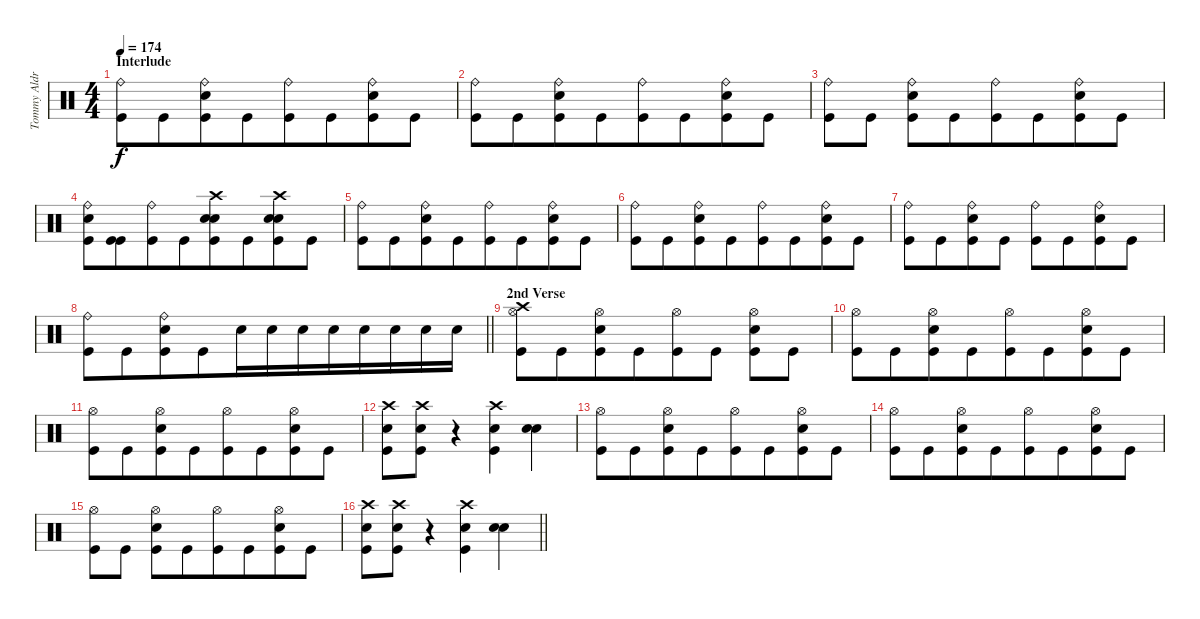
\track ("Tommy Aldrige" "Tommy Aldr") {instrument percussion}
\staff {score}
\articulation defaults
\ts (4 4)
\section ("" "Interlude")
\tempo 174
\clef neutral
\ks c
("Ride (bell)" "Kick (hit)").8{dy f beam merge} "Kick (hit)".8{beam merge} ("Ride (bell)" "Kick (hit)" "Snare (hit) 2").8{beam merge} "Kick (hit)".8{beam merge} ("Ride (bell)" "Kick (hit)").8{beam merge} "Kick (hit)".8{beam merge} ("Ride (bell)" "Kick (hit)" "Snare (hit) 2").8{beam merge} "Kick (hit)".8 |
("Ride (bell)" "Kick (hit)").8{beam merge} "Kick (hit)".8{beam merge} ("Ride (bell)" "Kick (hit)" "Snare (hit) 2").8{beam merge} "Kick (hit)".8{beam merge} ("Ride (bell)" "Kick (hit)").8{beam merge} "Kick (hit)".8{beam merge} ("Ride (bell)" "Kick (hit)" "Snare (hit) 2").8{beam merge} "Kick (hit)".8 |
("Ride (bell)" "Kick (hit)").8{beam merge} "Kick (hit)".8 ("Ride (bell)" "Kick (hit)" "Snare (hit) 2").8{beam merge} "Kick (hit)".8{beam merge} ("Ride (bell)" "Kick (hit)").8{beam merge} "Kick (hit)".8{beam merge} ("Ride (bell)" "Kick (hit)" "Snare (hit) 2").8{beam merge} "Kick (hit)".8 |
("Ride (bell)" "Kick (hit)" "Snare (hit) 2").8{beam merge} ("Kick (hit)" "Kick (hit)").8{beam merge} ("Ride (bell)" "Kick (hit)").8{beam merge} "Kick (hit)".8{beam merge} ("Crash high (hit)" "Snare (hit) 2" "Snare (hit) 2" "Kick (hit)").8{beam merge} "Kick (hit)".8{beam merge} ("Crash high (hit)" "Snare (hit) 2" "Snare (hit) 2" "Kick (hit)").8 "Kick (hit)".8 |
("Ride (bell)" "Kick (hit)").8{beam merge} "Kick (hit)".8{beam merge} ("Ride (bell)" "Kick (hit)" "Snare (hit) 2").8{beam merge} "Kick (hit)".8{beam merge} ("Ride (bell)" "Kick (hit)").8{beam merge} "Kick (hit)".8{beam merge} ("Ride (bell)" "Kick (hit)" "Snare (hit) 2").8{beam merge} "Kick (hit)".8 |
("Ride (bell)" "Kick (hit)").8{beam merge} "Kick (hit)".8{beam merge} ("Ride (bell)" "Kick (hit)" "Snare (hit) 2").8 "Kick (hit)".8{beam merge} ("Ride (bell)" "Kick (hit)").8{beam merge} "Kick (hit)".8{beam merge} ("Ride (bell)" "Kick (hit)" "Snare (hit) 2").8{beam merge} "Kick (hit)".8 |
("Ride (bell)" "Kick (hit)").8{beam merge} "Kick (hit)".8{beam merge} ("Ride (bell)" "Kick (hit)" "Snare (hit) 2").8{beam merge} "Kick (hit)".8 ("Ride (bell)" "Kick (hit)").8{beam merge} "Kick (hit)".8{beam merge} ("Ride (bell)" "Kick (hit)" "Snare (hit) 2").8{beam merge} "Kick (hit)".8 |
\barLineRight lightlight
("Ride (bell)" "Kick (hit)").8{beam merge} "Kick (hit)".8{beam merge} ("Ride (bell)" "Kick (hit)" "Snare (hit) 2").8{beam merge} "Kick (hit)".8{beam merge} "Snare (hit) 2".16{beam merge} "Snare (hit) 2".16{beam merge} "Snare (hit) 2".16{beam merge} "Snare (hit) 2".16{beam merge} "Snare (hit) 2".16{beam merge} "Snare (hit) 2".16{beam merge} "Snare (hit) 2".16{beam merge} "Snare (hit) 2".16 |
\section ("" "2nd Verse")
("Hi-Hat (open)" "Kick (hit)" "Crash high (hit)").8 "Kick (hit)".8{beam merge} ("Hi-Hat (open)" "Kick (hit)" "Snare (hit) 2").8{beam merge} "Kick (hit)".8{beam merge} ("Hi-Hat (open)" "Kick (hit)").8{beam merge} "Kick (hit)".8 ("Hi-Hat (open)" "Kick (hit)" "Snare (hit) 2").8{beam merge} "Kick (hit)".8 |
("Hi-Hat (open)" "Kick (hit)").8{beam merge} "Kick (hit)".8{beam merge} ("Hi-Hat (open)" "Kick (hit)" "Snare (hit) 2").8{beam merge} "Kick (hit)".8{beam merge} ("Hi-Hat (open)" "Kick (hit)").8{beam merge} "Kick (hit)".8{beam merge} ("Hi-Hat (open)" "Kick (hit)" "Snare (hit) 2").8{beam merge} "Kick (hit)".8 |
("Hi-Hat (open)" "Kick (hit)").8{beam merge} "Kick (hit)".8{beam merge} ("Hi-Hat (open)" "Kick (hit)" "Snare (hit) 2").8{beam merge} "Kick (hit)".8{beam merge} ("Hi-Hat (open)" "Kick (hit)").8{beam merge} "Kick (hit)".8{beam merge} ("Hi-Hat (open)" "Kick (hit)" "Snare (hit) 2").8{beam merge} "Kick (hit)".8 |
("Crash high (hit)" "Kick (hit)" "Snare (hit) 2").8{beam merge} ("Crash high (hit)" "Kick (hit)" "Snare (hit) 2").8{beam merge} r.4{beam merge} ("Crash high (hit)" "Kick (hit)" "Snare (hit) 2").4{beam merge} ("Snare (hit) 2" "Snare (hit) 2").4{bu 240} |
("Hi-Hat (open)" "Kick (hit)").8 "Kick (hit)".8{beam merge} ("Hi-Hat (open)" "Kick (hit)" "Snare (hit) 2").8{beam merge} "Kick (hit)".8{beam merge} ("Hi-Hat (open)" "Kick (hit)").8{beam merge} "Kick (hit)".8{beam merge} ("Hi-Hat (open)" "Kick (hit)" "Snare (hit) 2").8{beam merge} "Kick (hit)".8 |
("Hi-Hat (open)" "Kick (hit)").8 "Kick (hit)".8{beam merge} ("Hi-Hat (open)" "Kick (hit)" "Snare (hit) 2").8{beam merge} "Kick (hit)".8{beam merge} ("Hi-Hat (open)" "Kick (hit)").8 "Kick (hit)".8{beam merge} ("Hi-Hat (open)" "Kick (hit)" "Snare (hit) 2").8{beam merge} "Kick (hit)".8 |
("Hi-Hat (open)" "Kick (hit)").8{beam merge} "Kick (hit)".8 ("Hi-Hat (open)" "Kick (hit)" "Snare (hit) 2").8{beam merge} "Kick (hit)".8{beam merge} ("Hi-Hat (open)" "Kick (hit)").8{beam merge} "Kick (hit)".8{beam merge} ("Hi-Hat (open)" "Kick (hit)" "Snare (hit) 2").8{beam merge} "Kick (hit)".8 |
\barLineRight lightlight
("Crash high (hit)" "Kick (hit)" "Snare (hit) 2").8{beam merge} ("Crash high (hit)" "Kick (hit)" "Snare (hit) 2").8{beam merge} r.4{beam merge} ("Crash high (hit)" "Kick (hit)" "Snare (hit) 2").4{beam merge} ("Snare (hit) 2" "Snare (hit) 2").4{bu 240}
